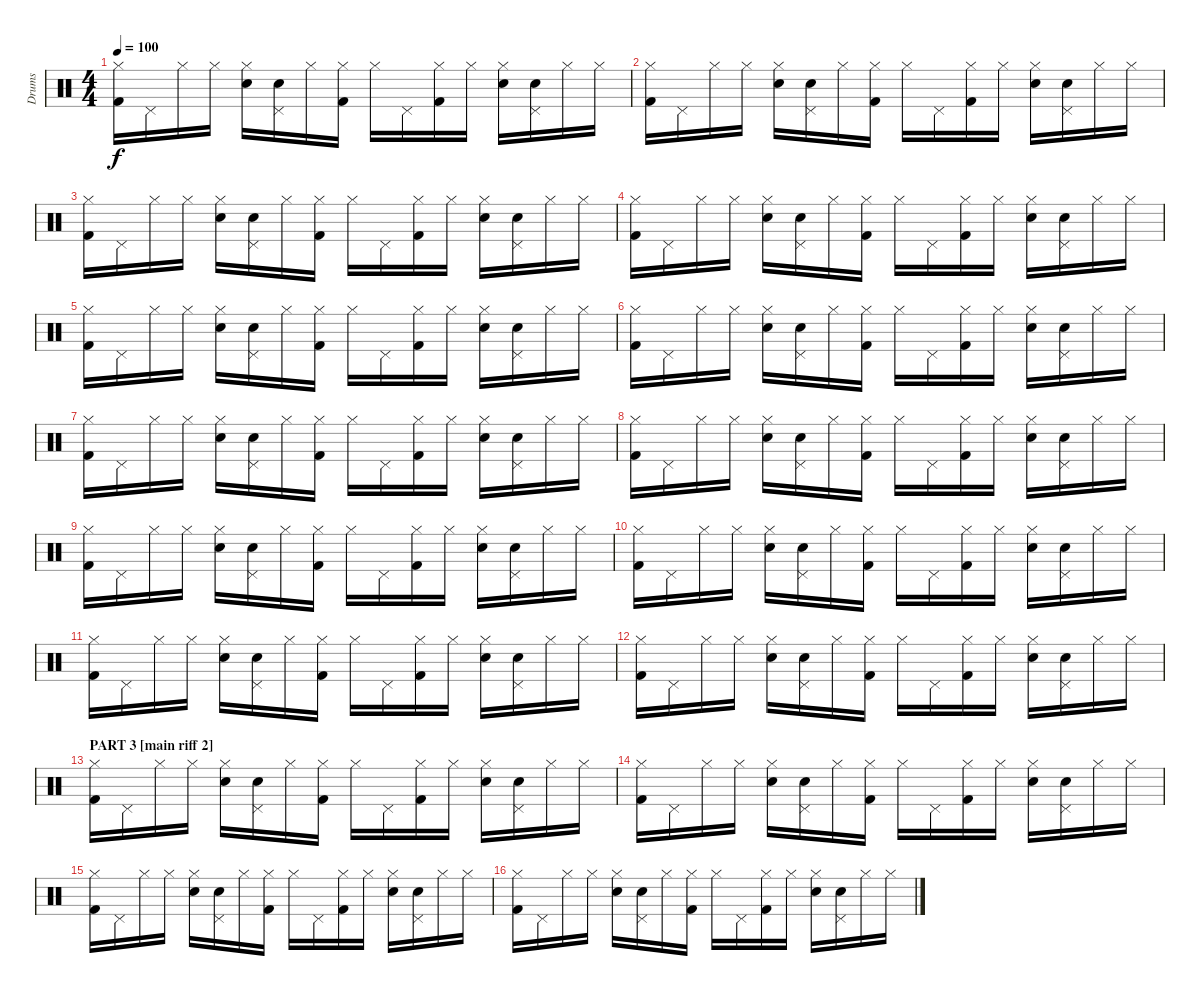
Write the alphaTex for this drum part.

\track ("Drums" "Drums") {instrument percussion}
\staff {score}
\articulation defaults
\ts (4 4)
\tempo 100
\clef neutral
\ks c
("Kick (hit) 2" "Hi-Hat (closed)").16{dy f} "Pedal Hi-Hat (hit)".16 "Hi-Hat (closed)".16 "Hi-Hat (closed)".16 ("Snare (hit) 2" "Hi-Hat (closed)").16 ("Snare (hit) 2" "Pedal Hi-Hat (hit)").16 "Hi-Hat (closed)".16 ("Kick (hit) 2" "Hi-Hat (closed)").16 "Hi-Hat (closed)".16 "Pedal Hi-Hat (hit)".16 ("Kick (hit) 2" "Hi-Hat (closed)").16 "Hi-Hat (closed)".16 ("Snare (hit) 2" "Hi-Hat (closed)").16 ("Snare (hit) 2" "Pedal Hi-Hat (hit)").16 "Hi-Hat (closed)".16 "Hi-Hat (closed)".16 |
("Kick (hit) 2" "Hi-Hat (closed)").16 "Pedal Hi-Hat (hit)".16 "Hi-Hat (closed)".16 "Hi-Hat (closed)".16 ("Snare (hit) 2" "Hi-Hat (closed)").16 ("Snare (hit) 2" "Pedal Hi-Hat (hit)").16 "Hi-Hat (closed)".16 ("Kick (hit) 2" "Hi-Hat (closed)").16 "Hi-Hat (closed)".16 "Pedal Hi-Hat (hit)".16 ("Kick (hit) 2" "Hi-Hat (closed)").16 "Hi-Hat (closed)".16 ("Snare (hit) 2" "Hi-Hat (closed)").16 ("Snare (hit) 2" "Pedal Hi-Hat (hit)").16 "Hi-Hat (closed)".16 "Hi-Hat (closed)".16 |
("Kick (hit) 2" "Hi-Hat (closed)").16 "Pedal Hi-Hat (hit)".16 "Hi-Hat (closed)".16 "Hi-Hat (closed)".16 ("Snare (hit) 2" "Hi-Hat (closed)").16 ("Snare (hit) 2" "Pedal Hi-Hat (hit)").16 "Hi-Hat (closed)".16 ("Kick (hit) 2" "Hi-Hat (closed)").16 "Hi-Hat (closed)".16 "Pedal Hi-Hat (hit)".16 ("Kick (hit) 2" "Hi-Hat (closed)").16 "Hi-Hat (closed)".16 ("Snare (hit) 2" "Hi-Hat (closed)").16 ("Snare (hit) 2" "Pedal Hi-Hat (hit)").16 "Hi-Hat (closed)".16 "Hi-Hat (closed)".16 |
("Kick (hit) 2" "Hi-Hat (closed)").16 "Pedal Hi-Hat (hit)".16 "Hi-Hat (closed)".16 "Hi-Hat (closed)".16 ("Snare (hit) 2" "Hi-Hat (closed)").16 ("Snare (hit) 2" "Pedal Hi-Hat (hit)").16 "Hi-Hat (closed)".16 ("Kick (hit) 2" "Hi-Hat (closed)").16 "Hi-Hat (closed)".16 "Pedal Hi-Hat (hit)".16 ("Kick (hit) 2" "Hi-Hat (closed)").16 "Hi-Hat (closed)".16 ("Snare (hit) 2" "Hi-Hat (closed)").16 ("Snare (hit) 2" "Pedal Hi-Hat (hit)").16 "Hi-Hat (closed)".16 "Hi-Hat (closed)".16 |
("Kick (hit) 2" "Hi-Hat (closed)").16 "Pedal Hi-Hat (hit)".16 "Hi-Hat (closed)".16 "Hi-Hat (closed)".16 ("Snare (hit) 2" "Hi-Hat (closed)").16 ("Snare (hit) 2" "Pedal Hi-Hat (hit)").16 "Hi-Hat (closed)".16 ("Kick (hit) 2" "Hi-Hat (closed)").16 "Hi-Hat (closed)".16 "Pedal Hi-Hat (hit)".16 ("Kick (hit) 2" "Hi-Hat (closed)").16 "Hi-Hat (closed)".16 ("Snare (hit) 2" "Hi-Hat (closed)").16 ("Snare (hit) 2" "Pedal Hi-Hat (hit)").16 "Hi-Hat (closed)".16 "Hi-Hat (closed)".16 |
("Kick (hit) 2" "Hi-Hat (closed)").16 "Pedal Hi-Hat (hit)".16 "Hi-Hat (closed)".16 "Hi-Hat (closed)".16 ("Snare (hit) 2" "Hi-Hat (closed)").16 ("Snare (hit) 2" "Pedal Hi-Hat (hit)").16 "Hi-Hat (closed)".16 ("Kick (hit) 2" "Hi-Hat (closed)").16 "Hi-Hat (closed)".16 "Pedal Hi-Hat (hit)".16 ("Kick (hit) 2" "Hi-Hat (closed)").16 "Hi-Hat (closed)".16 ("Snare (hit) 2" "Hi-Hat (closed)").16 ("Snare (hit) 2" "Pedal Hi-Hat (hit)").16 "Hi-Hat (closed)".16 "Hi-Hat (closed)".16 |
("Kick (hit) 2" "Hi-Hat (closed)").16 "Pedal Hi-Hat (hit)".16 "Hi-Hat (closed)".16 "Hi-Hat (closed)".16 ("Snare (hit) 2" "Hi-Hat (closed)").16 ("Snare (hit) 2" "Pedal Hi-Hat (hit)").16 "Hi-Hat (closed)".16 ("Kick (hit) 2" "Hi-Hat (closed)").16 "Hi-Hat (closed)".16 "Pedal Hi-Hat (hit)".16 ("Kick (hit) 2" "Hi-Hat (closed)").16 "Hi-Hat (closed)".16 ("Snare (hit) 2" "Hi-Hat (closed)").16 ("Snare (hit) 2" "Pedal Hi-Hat (hit)").16 "Hi-Hat (closed)".16 "Hi-Hat (closed)".16 |
("Kick (hit) 2" "Hi-Hat (closed)").16 "Pedal Hi-Hat (hit)".16 "Hi-Hat (closed)".16 "Hi-Hat (closed)".16 ("Snare (hit) 2" "Hi-Hat (closed)").16 ("Snare (hit) 2" "Pedal Hi-Hat (hit)").16 "Hi-Hat (closed)".16 ("Kick (hit) 2" "Hi-Hat (closed)").16 "Hi-Hat (closed)".16 "Pedal Hi-Hat (hit)".16 ("Kick (hit) 2" "Hi-Hat (closed)").16 "Hi-Hat (closed)".16 ("Snare (hit) 2" "Hi-Hat (closed)").16 ("Snare (hit) 2" "Pedal Hi-Hat (hit)").16 "Hi-Hat (closed)".16 "Hi-Hat (closed)".16 |
("Kick (hit) 2" "Hi-Hat (closed)").16 "Pedal Hi-Hat (hit)".16 "Hi-Hat (closed)".16 "Hi-Hat (closed)".16 ("Snare (hit) 2" "Hi-Hat (closed)").16 ("Snare (hit) 2" "Pedal Hi-Hat (hit)").16 "Hi-Hat (closed)".16 ("Kick (hit) 2" "Hi-Hat (closed)").16 "Hi-Hat (closed)".16 "Pedal Hi-Hat (hit)".16 ("Kick (hit) 2" "Hi-Hat (closed)").16 "Hi-Hat (closed)".16 ("Snare (hit) 2" "Hi-Hat (closed)").16 ("Snare (hit) 2" "Pedal Hi-Hat (hit)").16 "Hi-Hat (closed)".16 "Hi-Hat (closed)".16 |
("Kick (hit) 2" "Hi-Hat (closed)").16 "Pedal Hi-Hat (hit)".16 "Hi-Hat (closed)".16 "Hi-Hat (closed)".16 ("Snare (hit) 2" "Hi-Hat (closed)").16 ("Snare (hit) 2" "Pedal Hi-Hat (hit)").16 "Hi-Hat (closed)".16 ("Kick (hit) 2" "Hi-Hat (closed)").16 "Hi-Hat (closed)".16 "Pedal Hi-Hat (hit)".16 ("Kick (hit) 2" "Hi-Hat (closed)").16 "Hi-Hat (closed)".16 ("Snare (hit) 2" "Hi-Hat (closed)").16 ("Snare (hit) 2" "Pedal Hi-Hat (hit)").16 "Hi-Hat (closed)".16 "Hi-Hat (closed)".16 |
("Kick (hit) 2" "Hi-Hat (closed)").16 "Pedal Hi-Hat (hit)".16 "Hi-Hat (closed)".16 "Hi-Hat (closed)".16 ("Snare (hit) 2" "Hi-Hat (closed)").16 ("Snare (hit) 2" "Pedal Hi-Hat (hit)").16 "Hi-Hat (closed)".16 ("Kick (hit) 2" "Hi-Hat (closed)").16 "Hi-Hat (closed)".16 "Pedal Hi-Hat (hit)".16 ("Kick (hit) 2" "Hi-Hat (closed)").16 "Hi-Hat (closed)".16 ("Snare (hit) 2" "Hi-Hat (closed)").16 ("Snare (hit) 2" "Pedal Hi-Hat (hit)").16 "Hi-Hat (closed)".16 "Hi-Hat (closed)".16 |
("Kick (hit) 2" "Hi-Hat (closed)").16 "Pedal Hi-Hat (hit)".16 "Hi-Hat (closed)".16 "Hi-Hat (closed)".16 ("Snare (hit) 2" "Hi-Hat (closed)").16 ("Snare (hit) 2" "Pedal Hi-Hat (hit)").16 "Hi-Hat (closed)".16 ("Kick (hit) 2" "Hi-Hat (closed)").16 "Hi-Hat (closed)".16 "Pedal Hi-Hat (hit)".16 ("Kick (hit) 2" "Hi-Hat (closed)").16 "Hi-Hat (closed)".16 ("Snare (hit) 2" "Hi-Hat (closed)").16 ("Snare (hit) 2" "Pedal Hi-Hat (hit)").16 "Hi-Hat (closed)".16 "Hi-Hat (closed)".16 |
\section ("" "PART 3 [main riff 2]")
("Kick (hit) 2" "Hi-Hat (closed)").16 "Pedal Hi-Hat (hit)".16 "Hi-Hat (closed)".16 "Hi-Hat (closed)".16 ("Snare (hit) 2" "Hi-Hat (closed)").16 ("Snare (hit) 2" "Pedal Hi-Hat (hit)").16 "Hi-Hat (closed)".16 ("Kick (hit) 2" "Hi-Hat (closed)").16 "Hi-Hat (closed)".16 "Pedal Hi-Hat (hit)".16 ("Kick (hit) 2" "Hi-Hat (closed)").16 "Hi-Hat (closed)".16 ("Snare (hit) 2" "Hi-Hat (closed)").16 ("Snare (hit) 2" "Pedal Hi-Hat (hit)").16 "Hi-Hat (closed)".16 "Hi-Hat (closed)".16 |
("Kick (hit) 2" "Hi-Hat (closed)").16 "Pedal Hi-Hat (hit)".16 "Hi-Hat (closed)".16 "Hi-Hat (closed)".16 ("Snare (hit) 2" "Hi-Hat (closed)").16 ("Snare (hit) 2" "Pedal Hi-Hat (hit)").16 "Hi-Hat (closed)".16 ("Kick (hit) 2" "Hi-Hat (closed)").16 "Hi-Hat (closed)".16 "Pedal Hi-Hat (hit)".16 ("Kick (hit) 2" "Hi-Hat (closed)").16 "Hi-Hat (closed)".16 ("Snare (hit) 2" "Hi-Hat (closed)").16 ("Snare (hit) 2" "Pedal Hi-Hat (hit)").16 "Hi-Hat (closed)".16 "Hi-Hat (closed)".16 |
("Kick (hit) 2" "Hi-Hat (closed)").16 "Pedal Hi-Hat (hit)".16 "Hi-Hat (closed)".16 "Hi-Hat (closed)".16 ("Snare (hit) 2" "Hi-Hat (closed)").16 ("Snare (hit) 2" "Pedal Hi-Hat (hit)").16 "Hi-Hat (closed)".16 ("Kick (hit) 2" "Hi-Hat (closed)").16 "Hi-Hat (closed)".16 "Pedal Hi-Hat (hit)".16 ("Kick (hit) 2" "Hi-Hat (closed)").16 "Hi-Hat (closed)".16 ("Snare (hit) 2" "Hi-Hat (closed)").16 ("Snare (hit) 2" "Pedal Hi-Hat (hit)").16 "Hi-Hat (closed)".16 "Hi-Hat (closed)".16 |
("Kick (hit) 2" "Hi-Hat (closed)").16 "Pedal Hi-Hat (hit)".16 "Hi-Hat (closed)".16 "Hi-Hat (closed)".16 ("Snare (hit) 2" "Hi-Hat (closed)").16 ("Snare (hit) 2" "Pedal Hi-Hat (hit)").16 "Hi-Hat (closed)".16 ("Kick (hit) 2" "Hi-Hat (closed)").16 "Hi-Hat (closed)".16 "Pedal Hi-Hat (hit)".16 ("Kick (hit) 2" "Hi-Hat (closed)").16 "Hi-Hat (closed)".16 ("Snare (hit) 2" "Hi-Hat (closed)").16 ("Snare (hit) 2" "Pedal Hi-Hat (hit)").16 "Hi-Hat (closed)".16 "Hi-Hat (closed)".16
